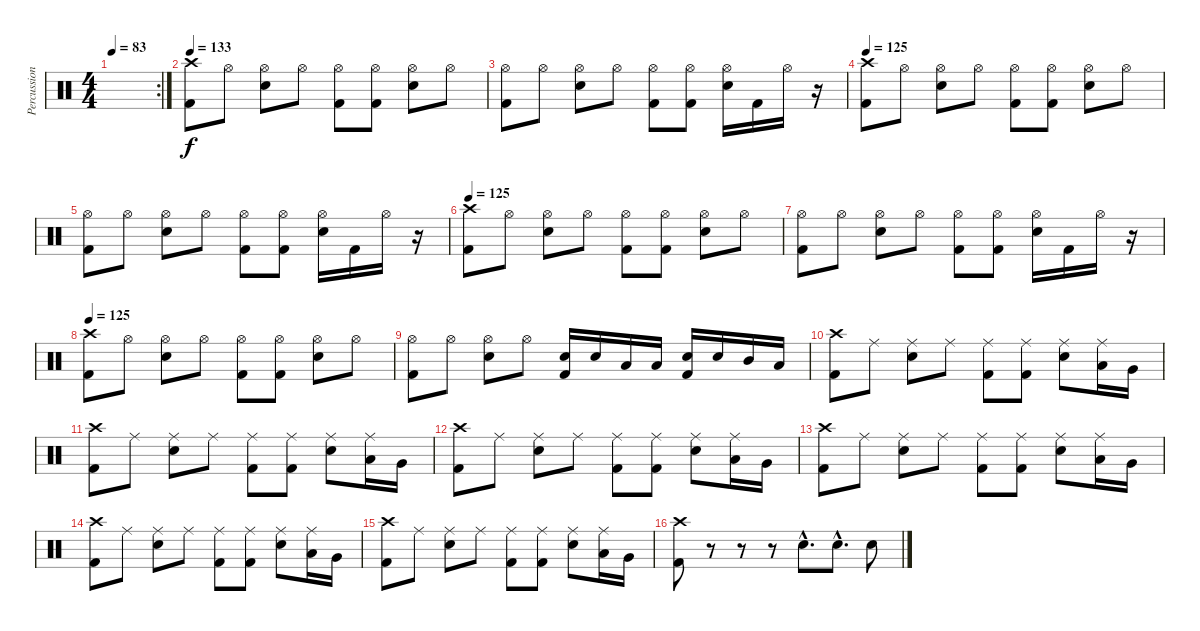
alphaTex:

\track ("Percussion" "Percussion") {instrument percussion}
\staff {score}
\articulation defaults
\rc 2
\ts (4 4)
\tempo 83
\clef neutral
\ks c
|
\tempo 133
("Crash high (hit)" "Kick (hit) 2").8 "Hi-Hat (open)".8 ("Hi-Hat (open)" "Electric Snare (hit)").8 "Hi-Hat (open)".8 ("Hi-Hat (open)" "Kick (hit) 2").8 ("Hi-Hat (open)" "Kick (hit) 2").8 ("Hi-Hat (open)" "Electric Snare (hit)").8 "Hi-Hat (open)".8 |
("Hi-Hat (open)" "Kick (hit) 2").8 "Hi-Hat (open)".8 ("Hi-Hat (open)" "Electric Snare (hit)").8 "Hi-Hat (open)".8 ("Hi-Hat (open)" "Kick (hit) 2").8 ("Hi-Hat (open)" "Kick (hit) 2").8 ("Hi-Hat (open)" "Electric Snare (hit)").16 "Kick (hit) 2".16 "Hi-Hat (open)".16 r.16 |
\tempo 125
("Crash high (hit)" "Kick (hit) 2").8 "Hi-Hat (open)".8 ("Hi-Hat (open)" "Electric Snare (hit)").8 "Hi-Hat (open)".8 ("Hi-Hat (open)" "Kick (hit) 2").8 ("Hi-Hat (open)" "Kick (hit) 2").8 ("Hi-Hat (open)" "Electric Snare (hit)").8 "Hi-Hat (open)".8 |
("Hi-Hat (open)" "Kick (hit) 2").8 "Hi-Hat (open)".8 ("Hi-Hat (open)" "Electric Snare (hit)").8 "Hi-Hat (open)".8 ("Hi-Hat (open)" "Kick (hit) 2").8 ("Hi-Hat (open)" "Kick (hit) 2").8 ("Hi-Hat (open)" "Electric Snare (hit)").16 "Kick (hit) 2".16 "Hi-Hat (open)".16 r.16 |
\tempo 125
("Crash high (hit)" "Kick (hit) 2").8 "Hi-Hat (open)".8 ("Hi-Hat (open)" "Electric Snare (hit)").8 "Hi-Hat (open)".8 ("Hi-Hat (open)" "Kick (hit) 2").8 ("Hi-Hat (open)" "Kick (hit) 2").8 ("Hi-Hat (open)" "Electric Snare (hit)").8 "Hi-Hat (open)".8 |
("Hi-Hat (open)" "Kick (hit) 2").8 "Hi-Hat (open)".8 ("Hi-Hat (open)" "Electric Snare (hit)").8 "Hi-Hat (open)".8 ("Hi-Hat (open)" "Kick (hit) 2").8 ("Hi-Hat (open)" "Kick (hit) 2").8 ("Hi-Hat (open)" "Electric Snare (hit)").16 "Kick (hit) 2".16 "Hi-Hat (open)".16 r.16 |
\tempo 125
("Crash high (hit)" "Kick (hit) 2").8 "Hi-Hat (open)".8 ("Hi-Hat (open)" "Electric Snare (hit)").8 "Hi-Hat (open)".8 ("Hi-Hat (open)" "Kick (hit) 2").8 ("Hi-Hat (open)" "Kick (hit) 2").8 ("Hi-Hat (open)" "Electric Snare (hit)").8 "Hi-Hat (open)".8 |
("Hi-Hat (open)" "Kick (hit) 2").8 "Hi-Hat (open)".8 ("Hi-Hat (open)" "Electric Snare (hit)").8 "Hi-Hat (open)".8 ("Electric Snare (hit)" "Kick (hit) 2").16 "Electric Snare (hit)".16 "Low Tom (hit)".16 "Low Tom (hit)".16 ("Electric Snare (hit)" "Kick (hit) 2").16 "Electric Snare (hit)".16 "Mid Tom (hit)".16 "Low Tom (hit)".16 |
\section ("" "")
("Crash high (hit)" "Kick (hit) 2").8 "Ride (middle)".8 ("Ride (middle)" "Electric Snare (hit)").8 "Ride (middle)".8 ("Ride (middle)" "Kick (hit) 2").8 ("Ride (middle)" "Kick (hit) 2").8 ("Ride (middle)" "Electric Snare (hit)").8 ("Ride (middle)" "Low Tom (hit)").16 "Very Low Tom (hit)".16 |
("Crash high (hit)" "Kick (hit) 2").8 "Ride (middle)".8 ("Ride (middle)" "Electric Snare (hit)").8 "Ride (middle)".8 ("Ride (middle)" "Kick (hit) 2").8 ("Ride (middle)" "Kick (hit) 2").8 ("Ride (middle)" "Electric Snare (hit)").8 ("Ride (middle)" "Low Tom (hit)").16 "Very Low Tom (hit)".16 |
("Crash high (hit)" "Kick (hit) 2").8 "Ride (middle)".8 ("Ride (middle)" "Electric Snare (hit)").8 "Ride (middle)".8 ("Ride (middle)" "Kick (hit) 2").8 ("Ride (middle)" "Kick (hit) 2").8 ("Ride (middle)" "Electric Snare (hit)").8 ("Ride (middle)" "Low Tom (hit)").16 "Very Low Tom (hit)".16 |
("Crash high (hit)" "Kick (hit) 2").8 "Ride (middle)".8 ("Ride (middle)" "Electric Snare (hit)").8 "Ride (middle)".8 ("Ride (middle)" "Kick (hit) 2").8 ("Ride (middle)" "Kick (hit) 2").8 ("Ride (middle)" "Electric Snare (hit)").8 ("Ride (middle)" "Low Tom (hit)").16 "Very Low Tom (hit)".16 |
("Crash high (hit)" "Kick (hit) 2").8 "Ride (middle)".8 ("Ride (middle)" "Electric Snare (hit)").8 "Ride (middle)".8 ("Ride (middle)" "Kick (hit) 2").8 ("Ride (middle)" "Kick (hit) 2").8 ("Ride (middle)" "Electric Snare (hit)").8 ("Ride (middle)" "Low Tom (hit)").16 "Very Low Tom (hit)".16 |
("Crash high (hit)" "Kick (hit) 2").8 "Ride (middle)".8 ("Ride (middle)" "Electric Snare (hit)").8 "Ride (middle)".8 ("Ride (middle)" "Kick (hit) 2").8 ("Ride (middle)" "Kick (hit) 2").8 ("Ride (middle)" "Electric Snare (hit)").8 ("Ride (middle)" "Low Tom (hit)").16 "Very Low Tom (hit)".16 |
("Crash high (hit)" "Kick (hit) 2").8 r.8 r.8 r.8 "Electric Snare (hit)"{hac}.8{d} "Electric Snare (hit)"{hac}.8{d} "Electric Snare (hit)".8
